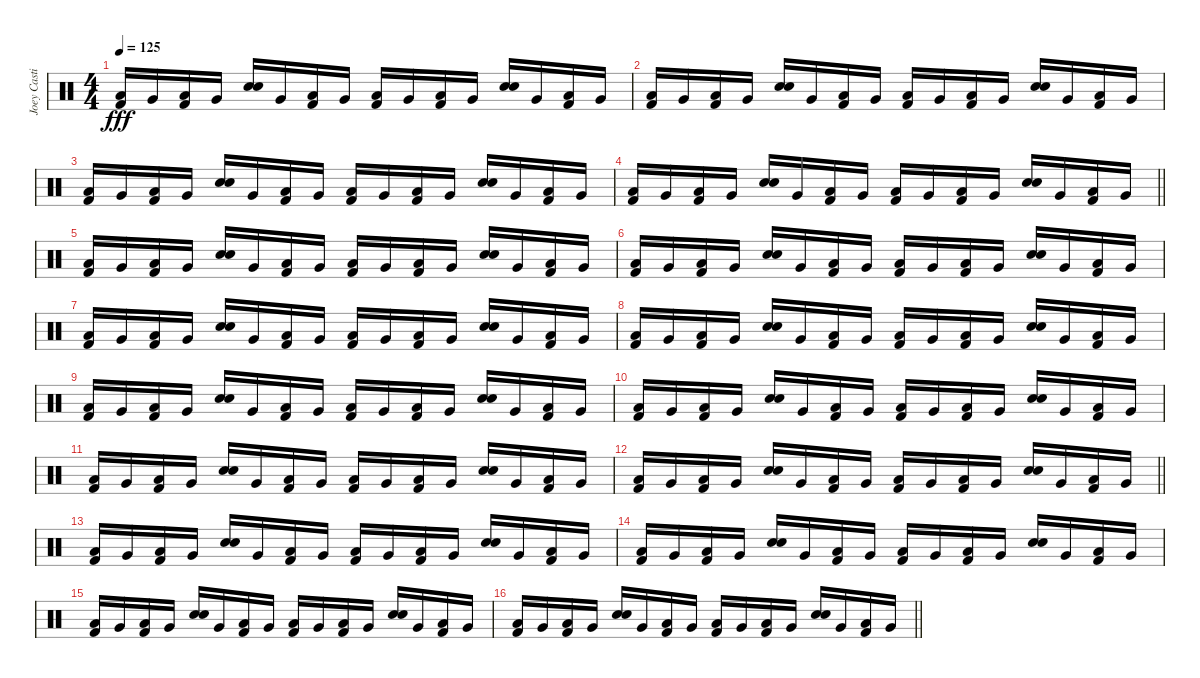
\track ("Joey Castillo" "Joey Casti") {instrument percussion}
\staff {score}
\articulation defaults
\ts (4 4)
\tempo 125
\clef neutral
\ks c
("Low Tom (hit)" "Kick (hit) 2").16{dy fff} "Very Low Tom (hit)".16 ("Low Tom (hit)" "Kick (hit) 2").16 "Very Low Tom (hit)".16 ("Electric Snare (hit)" "Electric Snare (hit)").16{bu 480} "Very Low Tom (hit)".16 ("Low Tom (hit)" "Kick (hit) 2").16 "Very Low Tom (hit)".16 ("Low Tom (hit)" "Kick (hit) 2").16 "Very Low Tom (hit)".16 ("Low Tom (hit)" "Kick (hit) 2").16 "Very Low Tom (hit)".16 ("Electric Snare (hit)" "Electric Snare (hit)").16{bu 480} "Very Low Tom (hit)".16 ("Low Tom (hit)" "Kick (hit) 2").16 "Very Low Tom (hit)".16 |
("Low Tom (hit)" "Kick (hit) 2").16 "Very Low Tom (hit)".16 ("Low Tom (hit)" "Kick (hit) 2").16 "Very Low Tom (hit)".16 ("Electric Snare (hit)" "Electric Snare (hit)").16{bu 480} "Very Low Tom (hit)".16 ("Low Tom (hit)" "Kick (hit) 2").16 "Very Low Tom (hit)".16 ("Low Tom (hit)" "Kick (hit) 2").16 "Very Low Tom (hit)".16 ("Low Tom (hit)" "Kick (hit) 2").16 "Very Low Tom (hit)".16 ("Electric Snare (hit)" "Electric Snare (hit)").16{bu 480} "Very Low Tom (hit)".16 ("Low Tom (hit)" "Kick (hit) 2").16 "Very Low Tom (hit)".16 |
("Low Tom (hit)" "Kick (hit) 2").16 "Very Low Tom (hit)".16 ("Low Tom (hit)" "Kick (hit) 2").16 "Very Low Tom (hit)".16 ("Electric Snare (hit)" "Electric Snare (hit)").16{bu 480} "Very Low Tom (hit)".16 ("Low Tom (hit)" "Kick (hit) 2").16 "Very Low Tom (hit)".16 ("Low Tom (hit)" "Kick (hit) 2").16 "Very Low Tom (hit)".16 ("Low Tom (hit)" "Kick (hit) 2").16 "Very Low Tom (hit)".16 ("Electric Snare (hit)" "Electric Snare (hit)").16{bu 480} "Very Low Tom (hit)".16 ("Low Tom (hit)" "Kick (hit) 2").16 "Very Low Tom (hit)".16 |
\barLineRight lightlight
("Low Tom (hit)" "Kick (hit) 2").16 "Very Low Tom (hit)".16 ("Low Tom (hit)" "Kick (hit) 2").16 "Very Low Tom (hit)".16 ("Electric Snare (hit)" "Electric Snare (hit)").16{bu 480} "Very Low Tom (hit)".16 ("Low Tom (hit)" "Kick (hit) 2").16 "Very Low Tom (hit)".16 ("Low Tom (hit)" "Kick (hit) 2").16 "Very Low Tom (hit)".16 ("Low Tom (hit)" "Kick (hit) 2").16 "Very Low Tom (hit)".16 ("Electric Snare (hit)" "Electric Snare (hit)").16{bu 480} "Very Low Tom (hit)".16 ("Low Tom (hit)" "Kick (hit) 2").16 "Very Low Tom (hit)".16 |
("Low Tom (hit)" "Kick (hit) 2").16 "Very Low Tom (hit)".16 ("Low Tom (hit)" "Kick (hit) 2").16 "Very Low Tom (hit)".16 ("Electric Snare (hit)" "Electric Snare (hit)").16{bu 480} "Very Low Tom (hit)".16 ("Low Tom (hit)" "Kick (hit) 2").16 "Very Low Tom (hit)".16 ("Low Tom (hit)" "Kick (hit) 2").16 "Very Low Tom (hit)".16 ("Low Tom (hit)" "Kick (hit) 2").16 "Very Low Tom (hit)".16 ("Electric Snare (hit)" "Electric Snare (hit)").16{bu 480} "Very Low Tom (hit)".16 ("Low Tom (hit)" "Kick (hit) 2").16 "Very Low Tom (hit)".16 |
("Low Tom (hit)" "Kick (hit) 2").16 "Very Low Tom (hit)".16 ("Low Tom (hit)" "Kick (hit) 2").16 "Very Low Tom (hit)".16 ("Electric Snare (hit)" "Electric Snare (hit)").16{bu 480} "Very Low Tom (hit)".16 ("Low Tom (hit)" "Kick (hit) 2").16 "Very Low Tom (hit)".16 ("Low Tom (hit)" "Kick (hit) 2").16 "Very Low Tom (hit)".16 ("Low Tom (hit)" "Kick (hit) 2").16 "Very Low Tom (hit)".16 ("Electric Snare (hit)" "Electric Snare (hit)").16{bu 480} "Very Low Tom (hit)".16 ("Low Tom (hit)" "Kick (hit) 2").16 "Very Low Tom (hit)".16 |
("Low Tom (hit)" "Kick (hit) 2").16 "Very Low Tom (hit)".16 ("Low Tom (hit)" "Kick (hit) 2").16 "Very Low Tom (hit)".16 ("Electric Snare (hit)" "Electric Snare (hit)").16{bu 480} "Very Low Tom (hit)".16 ("Low Tom (hit)" "Kick (hit) 2").16 "Very Low Tom (hit)".16 ("Low Tom (hit)" "Kick (hit) 2").16 "Very Low Tom (hit)".16 ("Low Tom (hit)" "Kick (hit) 2").16 "Very Low Tom (hit)".16 ("Electric Snare (hit)" "Electric Snare (hit)").16{bu 480} "Very Low Tom (hit)".16 ("Low Tom (hit)" "Kick (hit) 2").16 "Very Low Tom (hit)".16 |
("Low Tom (hit)" "Kick (hit) 2").16 "Very Low Tom (hit)".16 ("Low Tom (hit)" "Kick (hit) 2").16 "Very Low Tom (hit)".16 ("Electric Snare (hit)" "Electric Snare (hit)").16{bu 480} "Very Low Tom (hit)".16 ("Low Tom (hit)" "Kick (hit) 2").16 "Very Low Tom (hit)".16 ("Low Tom (hit)" "Kick (hit) 2").16 "Very Low Tom (hit)".16 ("Low Tom (hit)" "Kick (hit) 2").16 "Very Low Tom (hit)".16 ("Electric Snare (hit)" "Electric Snare (hit)").16{bu 480} "Very Low Tom (hit)".16 ("Low Tom (hit)" "Kick (hit) 2").16 "Very Low Tom (hit)".16 |
("Low Tom (hit)" "Kick (hit) 2").16 "Very Low Tom (hit)".16 ("Low Tom (hit)" "Kick (hit) 2").16 "Very Low Tom (hit)".16 ("Electric Snare (hit)" "Electric Snare (hit)").16{bu 480} "Very Low Tom (hit)".16 ("Low Tom (hit)" "Kick (hit) 2").16 "Very Low Tom (hit)".16 ("Low Tom (hit)" "Kick (hit) 2").16 "Very Low Tom (hit)".16 ("Low Tom (hit)" "Kick (hit) 2").16 "Very Low Tom (hit)".16 ("Electric Snare (hit)" "Electric Snare (hit)").16{bu 480} "Very Low Tom (hit)".16 ("Low Tom (hit)" "Kick (hit) 2").16 "Very Low Tom (hit)".16 |
("Low Tom (hit)" "Kick (hit) 2").16 "Very Low Tom (hit)".16 ("Low Tom (hit)" "Kick (hit) 2").16 "Very Low Tom (hit)".16 ("Electric Snare (hit)" "Electric Snare (hit)").16{bu 480} "Very Low Tom (hit)".16 ("Low Tom (hit)" "Kick (hit) 2").16 "Very Low Tom (hit)".16 ("Low Tom (hit)" "Kick (hit) 2").16 "Very Low Tom (hit)".16 ("Low Tom (hit)" "Kick (hit) 2").16 "Very Low Tom (hit)".16 ("Electric Snare (hit)" "Electric Snare (hit)").16{bu 480} "Very Low Tom (hit)".16 ("Low Tom (hit)" "Kick (hit) 2").16 "Very Low Tom (hit)".16 |
("Low Tom (hit)" "Kick (hit) 2").16 "Very Low Tom (hit)".16 ("Low Tom (hit)" "Kick (hit) 2").16 "Very Low Tom (hit)".16 ("Electric Snare (hit)" "Electric Snare (hit)").16{bu 480} "Very Low Tom (hit)".16 ("Low Tom (hit)" "Kick (hit) 2").16 "Very Low Tom (hit)".16 ("Low Tom (hit)" "Kick (hit) 2").16 "Very Low Tom (hit)".16 ("Low Tom (hit)" "Kick (hit) 2").16 "Very Low Tom (hit)".16 ("Electric Snare (hit)" "Electric Snare (hit)").16{bu 480} "Very Low Tom (hit)".16 ("Low Tom (hit)" "Kick (hit) 2").16 "Very Low Tom (hit)".16 |
\barLineRight lightlight
("Low Tom (hit)" "Kick (hit) 2").16 "Very Low Tom (hit)".16 ("Low Tom (hit)" "Kick (hit) 2").16 "Very Low Tom (hit)".16 ("Electric Snare (hit)" "Electric Snare (hit)").16{bu 480} "Very Low Tom (hit)".16 ("Low Tom (hit)" "Kick (hit) 2").16 "Very Low Tom (hit)".16 ("Low Tom (hit)" "Kick (hit) 2").16 "Very Low Tom (hit)".16 ("Low Tom (hit)" "Kick (hit) 2").16 "Very Low Tom (hit)".16 ("Electric Snare (hit)" "Electric Snare (hit)").16{bu 480} "Very Low Tom (hit)".16 ("Low Tom (hit)" "Kick (hit) 2").16 "Very Low Tom (hit)".16 |
("Low Tom (hit)" "Kick (hit) 2").16 "Very Low Tom (hit)".16 ("Low Tom (hit)" "Kick (hit) 2").16 "Very Low Tom (hit)".16 ("Electric Snare (hit)" "Electric Snare (hit)").16{bu 480} "Very Low Tom (hit)".16 ("Low Tom (hit)" "Kick (hit) 2").16 "Very Low Tom (hit)".16 ("Low Tom (hit)" "Kick (hit) 2").16 "Very Low Tom (hit)".16 ("Low Tom (hit)" "Kick (hit) 2").16 "Very Low Tom (hit)".16 ("Electric Snare (hit)" "Electric Snare (hit)").16{bu 480} "Very Low Tom (hit)".16 ("Low Tom (hit)" "Kick (hit) 2").16 "Very Low Tom (hit)".16 |
("Low Tom (hit)" "Kick (hit) 2").16 "Very Low Tom (hit)".16 ("Low Tom (hit)" "Kick (hit) 2").16 "Very Low Tom (hit)".16 ("Electric Snare (hit)" "Electric Snare (hit)").16{bu 480} "Very Low Tom (hit)".16 ("Low Tom (hit)" "Kick (hit) 2").16 "Very Low Tom (hit)".16 ("Low Tom (hit)" "Kick (hit) 2").16 "Very Low Tom (hit)".16 ("Low Tom (hit)" "Kick (hit) 2").16 "Very Low Tom (hit)".16 ("Electric Snare (hit)" "Electric Snare (hit)").16{bu 480} "Very Low Tom (hit)".16 ("Low Tom (hit)" "Kick (hit) 2").16 "Very Low Tom (hit)".16 |
("Low Tom (hit)" "Kick (hit) 2").16 "Very Low Tom (hit)".16 ("Low Tom (hit)" "Kick (hit) 2").16 "Very Low Tom (hit)".16 ("Electric Snare (hit)" "Electric Snare (hit)").16{bu 480} "Very Low Tom (hit)".16 ("Low Tom (hit)" "Kick (hit) 2").16 "Very Low Tom (hit)".16 ("Low Tom (hit)" "Kick (hit) 2").16 "Very Low Tom (hit)".16 ("Low Tom (hit)" "Kick (hit) 2").16 "Very Low Tom (hit)".16 ("Electric Snare (hit)" "Electric Snare (hit)").16{bu 480} "Very Low Tom (hit)".16 ("Low Tom (hit)" "Kick (hit) 2").16 "Very Low Tom (hit)".16 |
\barLineRight lightlight
("Low Tom (hit)" "Kick (hit) 2").16 "Very Low Tom (hit)".16 ("Low Tom (hit)" "Kick (hit) 2").16 "Very Low Tom (hit)".16 ("Electric Snare (hit)" "Electric Snare (hit)").16{bu 480} "Very Low Tom (hit)".16 ("Low Tom (hit)" "Kick (hit) 2").16 "Very Low Tom (hit)".16 ("Low Tom (hit)" "Kick (hit) 2").16 "Very Low Tom (hit)".16 ("Low Tom (hit)" "Kick (hit) 2").16 "Very Low Tom (hit)".16 ("Electric Snare (hit)" "Electric Snare (hit)").16{bu 480} "Very Low Tom (hit)".16 ("Low Tom (hit)" "Kick (hit) 2").16 "Very Low Tom (hit)".16
